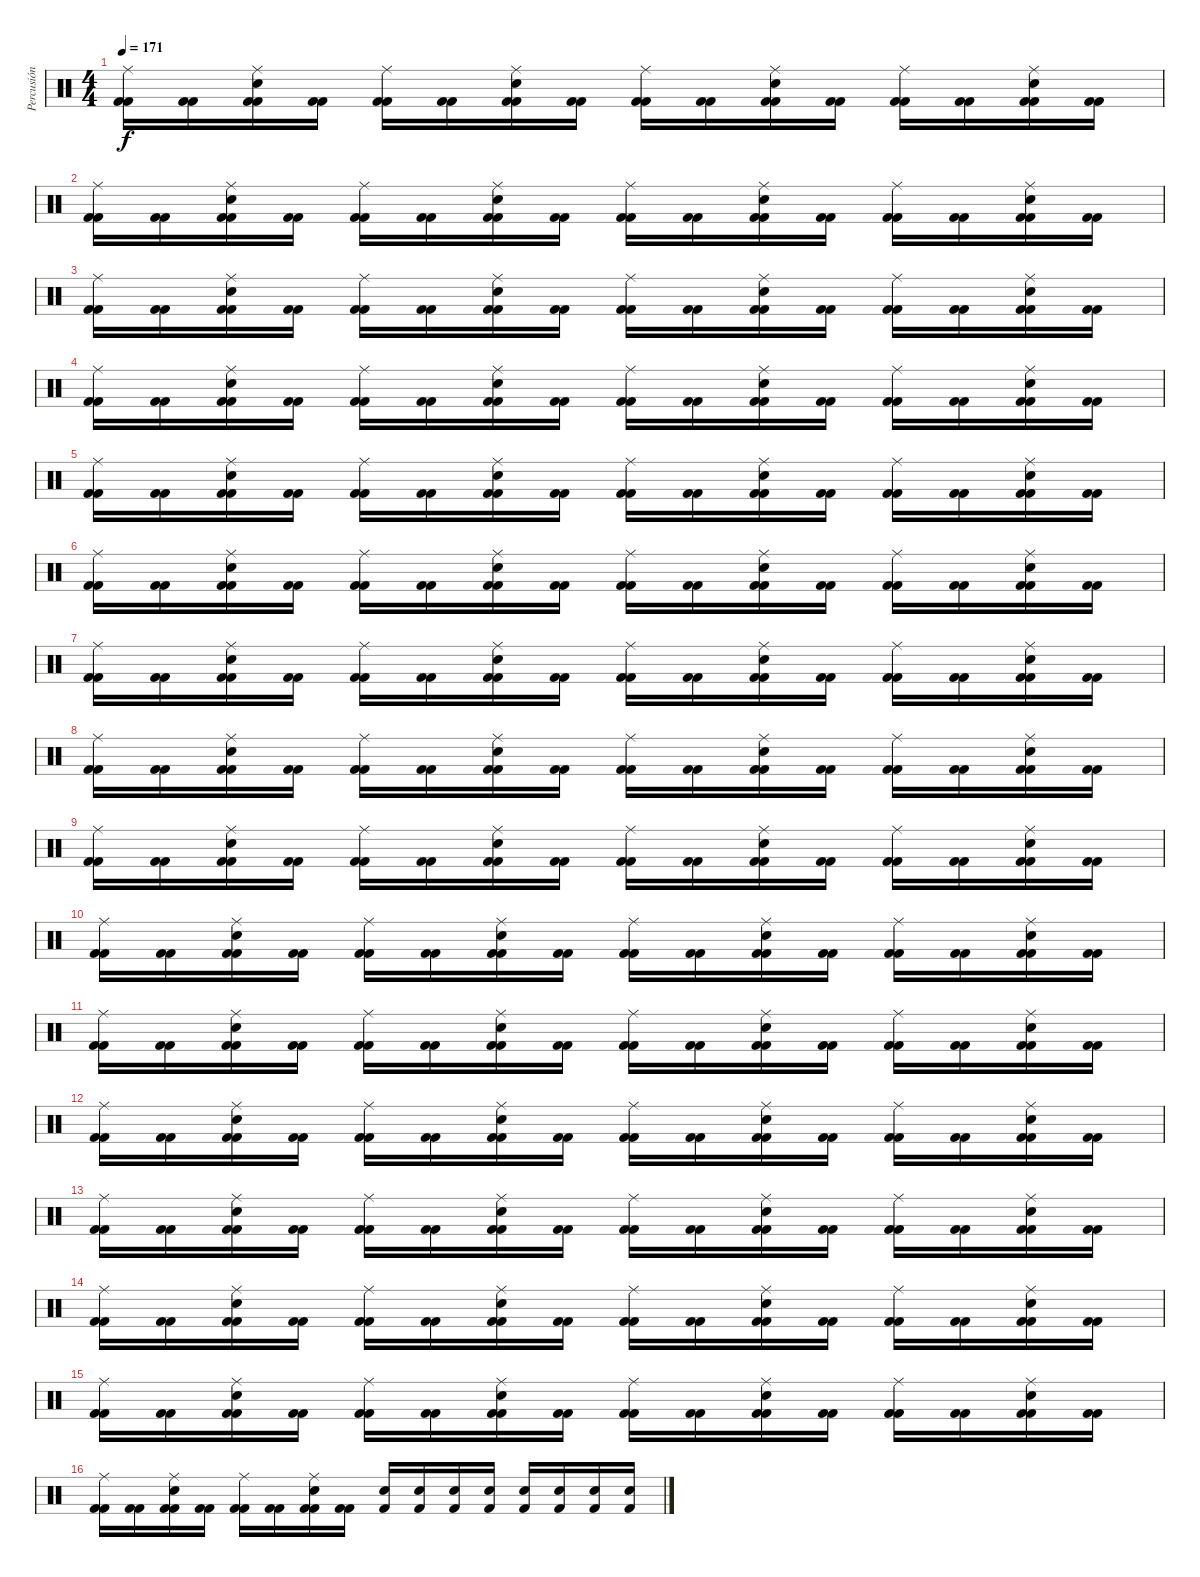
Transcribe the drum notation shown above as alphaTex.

\track ("Percusión" "Percusión") {instrument percussion}
\staff {score}
\articulation defaults
\ts (4 4)
\tempo 171
\clef neutral
\ks c
("Kick (hit) 2" "Kick (hit) 2" "Ride (middle)").16{dy f} ("Kick (hit) 2" "Kick (hit) 2").16 ("Kick (hit) 2" "Kick (hit) 2" "Electric Snare (hit)" "Ride (middle)").16 ("Kick (hit) 2" "Kick (hit) 2").16 ("Kick (hit) 2" "Kick (hit) 2" "Ride (middle)").16 ("Kick (hit) 2" "Kick (hit) 2").16 ("Kick (hit) 2" "Kick (hit) 2" "Electric Snare (hit)" "Ride (middle)").16 ("Kick (hit) 2" "Kick (hit) 2").16 ("Kick (hit) 2" "Kick (hit) 2" "Ride (middle)").16 ("Kick (hit) 2" "Kick (hit) 2").16 ("Kick (hit) 2" "Kick (hit) 2" "Electric Snare (hit)" "Ride (middle)").16 ("Kick (hit) 2" "Kick (hit) 2").16 ("Kick (hit) 2" "Kick (hit) 2" "Ride (middle)").16 ("Kick (hit) 2" "Kick (hit) 2").16 ("Kick (hit) 2" "Kick (hit) 2" "Electric Snare (hit)" "Ride (middle)").16 ("Kick (hit) 2" "Kick (hit) 2").16 |
("Kick (hit) 2" "Kick (hit) 2" "Ride (middle)").16 ("Kick (hit) 2" "Kick (hit) 2").16 ("Kick (hit) 2" "Kick (hit) 2" "Electric Snare (hit)" "Ride (middle)").16 ("Kick (hit) 2" "Kick (hit) 2").16 ("Kick (hit) 2" "Kick (hit) 2" "Ride (middle)").16 ("Kick (hit) 2" "Kick (hit) 2").16 ("Kick (hit) 2" "Kick (hit) 2" "Electric Snare (hit)" "Ride (middle)").16 ("Kick (hit) 2" "Kick (hit) 2").16 ("Kick (hit) 2" "Kick (hit) 2" "Ride (middle)").16 ("Kick (hit) 2" "Kick (hit) 2").16 ("Kick (hit) 2" "Kick (hit) 2" "Electric Snare (hit)" "Ride (middle)").16 ("Kick (hit) 2" "Kick (hit) 2").16 ("Kick (hit) 2" "Kick (hit) 2" "Ride (middle)").16 ("Kick (hit) 2" "Kick (hit) 2").16 ("Kick (hit) 2" "Kick (hit) 2" "Electric Snare (hit)" "Ride (middle)").16 ("Kick (hit) 2" "Kick (hit) 2").16 |
("Kick (hit) 2" "Kick (hit) 2" "Ride (middle)").16 ("Kick (hit) 2" "Kick (hit) 2").16 ("Kick (hit) 2" "Kick (hit) 2" "Electric Snare (hit)" "Ride (middle)").16 ("Kick (hit) 2" "Kick (hit) 2").16 ("Kick (hit) 2" "Kick (hit) 2" "Ride (middle)").16 ("Kick (hit) 2" "Kick (hit) 2").16 ("Kick (hit) 2" "Kick (hit) 2" "Electric Snare (hit)" "Ride (middle)").16 ("Kick (hit) 2" "Kick (hit) 2").16 ("Kick (hit) 2" "Kick (hit) 2" "Ride (middle)").16 ("Kick (hit) 2" "Kick (hit) 2").16 ("Kick (hit) 2" "Kick (hit) 2" "Electric Snare (hit)" "Ride (middle)").16 ("Kick (hit) 2" "Kick (hit) 2").16 ("Kick (hit) 2" "Kick (hit) 2" "Ride (middle)").16 ("Kick (hit) 2" "Kick (hit) 2").16 ("Kick (hit) 2" "Kick (hit) 2" "Electric Snare (hit)" "Ride (middle)").16 ("Kick (hit) 2" "Kick (hit) 2").16 |
("Kick (hit) 2" "Kick (hit) 2" "Ride (middle)").16 ("Kick (hit) 2" "Kick (hit) 2").16 ("Kick (hit) 2" "Kick (hit) 2" "Electric Snare (hit)" "Ride (middle)").16 ("Kick (hit) 2" "Kick (hit) 2").16 ("Kick (hit) 2" "Kick (hit) 2" "Ride (middle)").16 ("Kick (hit) 2" "Kick (hit) 2").16 ("Kick (hit) 2" "Kick (hit) 2" "Electric Snare (hit)" "Ride (middle)").16 ("Kick (hit) 2" "Kick (hit) 2").16 ("Kick (hit) 2" "Kick (hit) 2" "Ride (middle)").16 ("Kick (hit) 2" "Kick (hit) 2").16 ("Kick (hit) 2" "Kick (hit) 2" "Electric Snare (hit)" "Ride (middle)").16 ("Kick (hit) 2" "Kick (hit) 2").16 ("Kick (hit) 2" "Kick (hit) 2" "Ride (middle)").16 ("Kick (hit) 2" "Kick (hit) 2").16 ("Kick (hit) 2" "Kick (hit) 2" "Electric Snare (hit)" "Ride (middle)").16 ("Kick (hit) 2" "Kick (hit) 2").16 |
("Kick (hit) 2" "Kick (hit) 2" "Ride (middle)").16 ("Kick (hit) 2" "Kick (hit) 2").16 ("Kick (hit) 2" "Kick (hit) 2" "Electric Snare (hit)" "Ride (middle)").16 ("Kick (hit) 2" "Kick (hit) 2").16 ("Kick (hit) 2" "Kick (hit) 2" "Ride (middle)").16 ("Kick (hit) 2" "Kick (hit) 2").16 ("Kick (hit) 2" "Kick (hit) 2" "Electric Snare (hit)" "Ride (middle)").16 ("Kick (hit) 2" "Kick (hit) 2").16 ("Kick (hit) 2" "Kick (hit) 2" "Ride (middle)").16 ("Kick (hit) 2" "Kick (hit) 2").16 ("Kick (hit) 2" "Kick (hit) 2" "Electric Snare (hit)" "Ride (middle)").16 ("Kick (hit) 2" "Kick (hit) 2").16 ("Kick (hit) 2" "Kick (hit) 2" "Ride (middle)").16 ("Kick (hit) 2" "Kick (hit) 2").16 ("Kick (hit) 2" "Kick (hit) 2" "Electric Snare (hit)" "Ride (middle)").16 ("Kick (hit) 2" "Kick (hit) 2").16 |
("Kick (hit) 2" "Kick (hit) 2" "Ride (middle)").16 ("Kick (hit) 2" "Kick (hit) 2").16 ("Kick (hit) 2" "Kick (hit) 2" "Electric Snare (hit)" "Ride (middle)").16 ("Kick (hit) 2" "Kick (hit) 2").16 ("Kick (hit) 2" "Kick (hit) 2" "Ride (middle)").16 ("Kick (hit) 2" "Kick (hit) 2").16 ("Kick (hit) 2" "Kick (hit) 2" "Electric Snare (hit)" "Ride (middle)").16 ("Kick (hit) 2" "Kick (hit) 2").16 ("Kick (hit) 2" "Kick (hit) 2" "Ride (middle)").16 ("Kick (hit) 2" "Kick (hit) 2").16 ("Kick (hit) 2" "Kick (hit) 2" "Electric Snare (hit)" "Ride (middle)").16 ("Kick (hit) 2" "Kick (hit) 2").16 ("Kick (hit) 2" "Kick (hit) 2" "Ride (middle)").16 ("Kick (hit) 2" "Kick (hit) 2").16 ("Kick (hit) 2" "Kick (hit) 2" "Electric Snare (hit)" "Ride (middle)").16 ("Kick (hit) 2" "Kick (hit) 2").16 |
("Kick (hit) 2" "Kick (hit) 2" "Ride (middle)").16 ("Kick (hit) 2" "Kick (hit) 2").16 ("Kick (hit) 2" "Kick (hit) 2" "Electric Snare (hit)" "Ride (middle)").16 ("Kick (hit) 2" "Kick (hit) 2").16 ("Kick (hit) 2" "Kick (hit) 2" "Ride (middle)").16 ("Kick (hit) 2" "Kick (hit) 2").16 ("Kick (hit) 2" "Kick (hit) 2" "Electric Snare (hit)" "Ride (middle)").16 ("Kick (hit) 2" "Kick (hit) 2").16 ("Kick (hit) 2" "Kick (hit) 2" "Ride (middle)").16 ("Kick (hit) 2" "Kick (hit) 2").16 ("Kick (hit) 2" "Kick (hit) 2" "Electric Snare (hit)" "Ride (middle)").16 ("Kick (hit) 2" "Kick (hit) 2").16 ("Kick (hit) 2" "Kick (hit) 2" "Ride (middle)").16 ("Kick (hit) 2" "Kick (hit) 2").16 ("Kick (hit) 2" "Kick (hit) 2" "Electric Snare (hit)" "Ride (middle)").16 ("Kick (hit) 2" "Kick (hit) 2").16 |
("Kick (hit) 2" "Kick (hit) 2" "Ride (middle)").16 ("Kick (hit) 2" "Kick (hit) 2").16 ("Kick (hit) 2" "Kick (hit) 2" "Electric Snare (hit)" "Ride (middle)").16 ("Kick (hit) 2" "Kick (hit) 2").16 ("Kick (hit) 2" "Kick (hit) 2" "Ride (middle)").16 ("Kick (hit) 2" "Kick (hit) 2").16 ("Kick (hit) 2" "Kick (hit) 2" "Electric Snare (hit)" "Ride (middle)").16 ("Kick (hit) 2" "Kick (hit) 2").16 ("Kick (hit) 2" "Kick (hit) 2" "Ride (middle)").16 ("Kick (hit) 2" "Kick (hit) 2").16 ("Kick (hit) 2" "Kick (hit) 2" "Electric Snare (hit)" "Ride (middle)").16 ("Kick (hit) 2" "Kick (hit) 2").16 ("Kick (hit) 2" "Kick (hit) 2" "Ride (middle)").16 ("Kick (hit) 2" "Kick (hit) 2").16 ("Kick (hit) 2" "Kick (hit) 2" "Electric Snare (hit)" "Ride (middle)").16 ("Kick (hit) 2" "Kick (hit) 2").16 |
("Kick (hit) 2" "Kick (hit) 2" "Ride (middle)").16 ("Kick (hit) 2" "Kick (hit) 2").16 ("Kick (hit) 2" "Kick (hit) 2" "Electric Snare (hit)" "Ride (middle)").16 ("Kick (hit) 2" "Kick (hit) 2").16 ("Kick (hit) 2" "Kick (hit) 2" "Ride (middle)").16 ("Kick (hit) 2" "Kick (hit) 2").16 ("Kick (hit) 2" "Kick (hit) 2" "Electric Snare (hit)" "Ride (middle)").16 ("Kick (hit) 2" "Kick (hit) 2").16 ("Kick (hit) 2" "Kick (hit) 2" "Ride (middle)").16 ("Kick (hit) 2" "Kick (hit) 2").16 ("Kick (hit) 2" "Kick (hit) 2" "Electric Snare (hit)" "Ride (middle)").16 ("Kick (hit) 2" "Kick (hit) 2").16 ("Kick (hit) 2" "Kick (hit) 2" "Ride (middle)").16 ("Kick (hit) 2" "Kick (hit) 2").16 ("Kick (hit) 2" "Kick (hit) 2" "Electric Snare (hit)" "Ride (middle)").16 ("Kick (hit) 2" "Kick (hit) 2").16 |
("Kick (hit) 2" "Kick (hit) 2" "Ride (middle)").16 ("Kick (hit) 2" "Kick (hit) 2").16 ("Kick (hit) 2" "Kick (hit) 2" "Electric Snare (hit)" "Ride (middle)").16 ("Kick (hit) 2" "Kick (hit) 2").16 ("Kick (hit) 2" "Kick (hit) 2" "Ride (middle)").16 ("Kick (hit) 2" "Kick (hit) 2").16 ("Kick (hit) 2" "Kick (hit) 2" "Electric Snare (hit)" "Ride (middle)").16 ("Kick (hit) 2" "Kick (hit) 2").16 ("Kick (hit) 2" "Kick (hit) 2" "Ride (middle)").16 ("Kick (hit) 2" "Kick (hit) 2").16 ("Kick (hit) 2" "Kick (hit) 2" "Electric Snare (hit)" "Ride (middle)").16 ("Kick (hit) 2" "Kick (hit) 2").16 ("Kick (hit) 2" "Kick (hit) 2" "Ride (middle)").16 ("Kick (hit) 2" "Kick (hit) 2").16 ("Kick (hit) 2" "Kick (hit) 2" "Electric Snare (hit)" "Ride (middle)").16 ("Kick (hit) 2" "Kick (hit) 2").16 |
("Kick (hit) 2" "Kick (hit) 2" "Ride (middle)").16 ("Kick (hit) 2" "Kick (hit) 2").16 ("Kick (hit) 2" "Kick (hit) 2" "Electric Snare (hit)" "Ride (middle)").16 ("Kick (hit) 2" "Kick (hit) 2").16 ("Kick (hit) 2" "Kick (hit) 2" "Ride (middle)").16 ("Kick (hit) 2" "Kick (hit) 2").16 ("Kick (hit) 2" "Kick (hit) 2" "Electric Snare (hit)" "Ride (middle)").16 ("Kick (hit) 2" "Kick (hit) 2").16 ("Kick (hit) 2" "Kick (hit) 2" "Ride (middle)").16 ("Kick (hit) 2" "Kick (hit) 2").16 ("Kick (hit) 2" "Kick (hit) 2" "Electric Snare (hit)" "Ride (middle)").16 ("Kick (hit) 2" "Kick (hit) 2").16 ("Kick (hit) 2" "Kick (hit) 2" "Ride (middle)").16 ("Kick (hit) 2" "Kick (hit) 2").16 ("Kick (hit) 2" "Kick (hit) 2" "Electric Snare (hit)" "Ride (middle)").16 ("Kick (hit) 2" "Kick (hit) 2").16 |
("Kick (hit) 2" "Kick (hit) 2" "Ride (middle)").16 ("Kick (hit) 2" "Kick (hit) 2").16 ("Kick (hit) 2" "Kick (hit) 2" "Electric Snare (hit)" "Ride (middle)").16 ("Kick (hit) 2" "Kick (hit) 2").16 ("Kick (hit) 2" "Kick (hit) 2" "Ride (middle)").16 ("Kick (hit) 2" "Kick (hit) 2").16 ("Kick (hit) 2" "Kick (hit) 2" "Electric Snare (hit)" "Ride (middle)").16 ("Kick (hit) 2" "Kick (hit) 2").16 ("Kick (hit) 2" "Kick (hit) 2" "Ride (middle)").16 ("Kick (hit) 2" "Kick (hit) 2").16 ("Kick (hit) 2" "Kick (hit) 2" "Electric Snare (hit)" "Ride (middle)").16 ("Kick (hit) 2" "Kick (hit) 2").16 ("Kick (hit) 2" "Kick (hit) 2" "Ride (middle)").16 ("Kick (hit) 2" "Kick (hit) 2").16 ("Kick (hit) 2" "Kick (hit) 2" "Electric Snare (hit)" "Ride (middle)").16 ("Kick (hit) 2" "Kick (hit) 2").16 |
("Kick (hit) 2" "Kick (hit) 2" "Ride (middle)").16 ("Kick (hit) 2" "Kick (hit) 2").16 ("Kick (hit) 2" "Kick (hit) 2" "Electric Snare (hit)" "Ride (middle)").16 ("Kick (hit) 2" "Kick (hit) 2").16 ("Kick (hit) 2" "Kick (hit) 2" "Ride (middle)").16 ("Kick (hit) 2" "Kick (hit) 2").16 ("Kick (hit) 2" "Kick (hit) 2" "Electric Snare (hit)" "Ride (middle)").16 ("Kick (hit) 2" "Kick (hit) 2").16 ("Kick (hit) 2" "Kick (hit) 2" "Ride (middle)").16 ("Kick (hit) 2" "Kick (hit) 2").16 ("Kick (hit) 2" "Kick (hit) 2" "Electric Snare (hit)" "Ride (middle)").16 ("Kick (hit) 2" "Kick (hit) 2").16 ("Kick (hit) 2" "Kick (hit) 2" "Ride (middle)").16 ("Kick (hit) 2" "Kick (hit) 2").16 ("Kick (hit) 2" "Kick (hit) 2" "Electric Snare (hit)" "Ride (middle)").16 ("Kick (hit) 2" "Kick (hit) 2").16 |
("Kick (hit) 2" "Kick (hit) 2" "Ride (middle)").16 ("Kick (hit) 2" "Kick (hit) 2").16 ("Kick (hit) 2" "Kick (hit) 2" "Electric Snare (hit)" "Ride (middle)").16 ("Kick (hit) 2" "Kick (hit) 2").16 ("Kick (hit) 2" "Kick (hit) 2" "Ride (middle)").16 ("Kick (hit) 2" "Kick (hit) 2").16 ("Kick (hit) 2" "Kick (hit) 2" "Electric Snare (hit)" "Ride (middle)").16 ("Kick (hit) 2" "Kick (hit) 2").16 ("Kick (hit) 2" "Kick (hit) 2" "Ride (middle)").16 ("Kick (hit) 2" "Kick (hit) 2").16 ("Kick (hit) 2" "Kick (hit) 2" "Electric Snare (hit)" "Ride (middle)").16 ("Kick (hit) 2" "Kick (hit) 2").16 ("Kick (hit) 2" "Kick (hit) 2" "Ride (middle)").16 ("Kick (hit) 2" "Kick (hit) 2").16 ("Kick (hit) 2" "Kick (hit) 2" "Electric Snare (hit)" "Ride (middle)").16 ("Kick (hit) 2" "Kick (hit) 2").16 |
("Kick (hit) 2" "Kick (hit) 2" "Ride (middle)").16 ("Kick (hit) 2" "Kick (hit) 2").16 ("Kick (hit) 2" "Kick (hit) 2" "Electric Snare (hit)" "Ride (middle)").16 ("Kick (hit) 2" "Kick (hit) 2").16 ("Kick (hit) 2" "Kick (hit) 2" "Ride (middle)").16 ("Kick (hit) 2" "Kick (hit) 2").16 ("Kick (hit) 2" "Kick (hit) 2" "Electric Snare (hit)" "Ride (middle)").16 ("Kick (hit) 2" "Kick (hit) 2").16 ("Kick (hit) 2" "Kick (hit) 2" "Ride (middle)").16 ("Kick (hit) 2" "Kick (hit) 2").16 ("Kick (hit) 2" "Kick (hit) 2" "Electric Snare (hit)" "Ride (middle)").16 ("Kick (hit) 2" "Kick (hit) 2").16 ("Kick (hit) 2" "Kick (hit) 2" "Ride (middle)").16 ("Kick (hit) 2" "Kick (hit) 2").16 ("Kick (hit) 2" "Kick (hit) 2" "Electric Snare (hit)" "Ride (middle)").16 ("Kick (hit) 2" "Kick (hit) 2").16 |
("Kick (hit) 2" "Kick (hit) 2" "Ride (middle)").16 ("Kick (hit) 2" "Kick (hit) 2").16 ("Kick (hit) 2" "Kick (hit) 2" "Electric Snare (hit)" "Ride (middle)").16 ("Kick (hit) 2" "Kick (hit) 2").16 ("Kick (hit) 2" "Kick (hit) 2" "Ride (middle)").16 ("Kick (hit) 2" "Kick (hit) 2").16 ("Kick (hit) 2" "Kick (hit) 2" "Electric Snare (hit)" "Ride (middle)").16 ("Kick (hit) 2" "Kick (hit) 2").16 ("Kick (hit) 2" "Electric Snare (hit)").16 ("Kick (hit) 2" "Electric Snare (hit)").16 ("Kick (hit) 2" "Electric Snare (hit)").16 ("Kick (hit) 2" "Electric Snare (hit)").16 ("Kick (hit) 2" "Electric Snare (hit)").16 ("Kick (hit) 2" "Electric Snare (hit)").16 ("Kick (hit) 2" "Electric Snare (hit)").16 ("Kick (hit) 2" "Electric Snare (hit)").16
